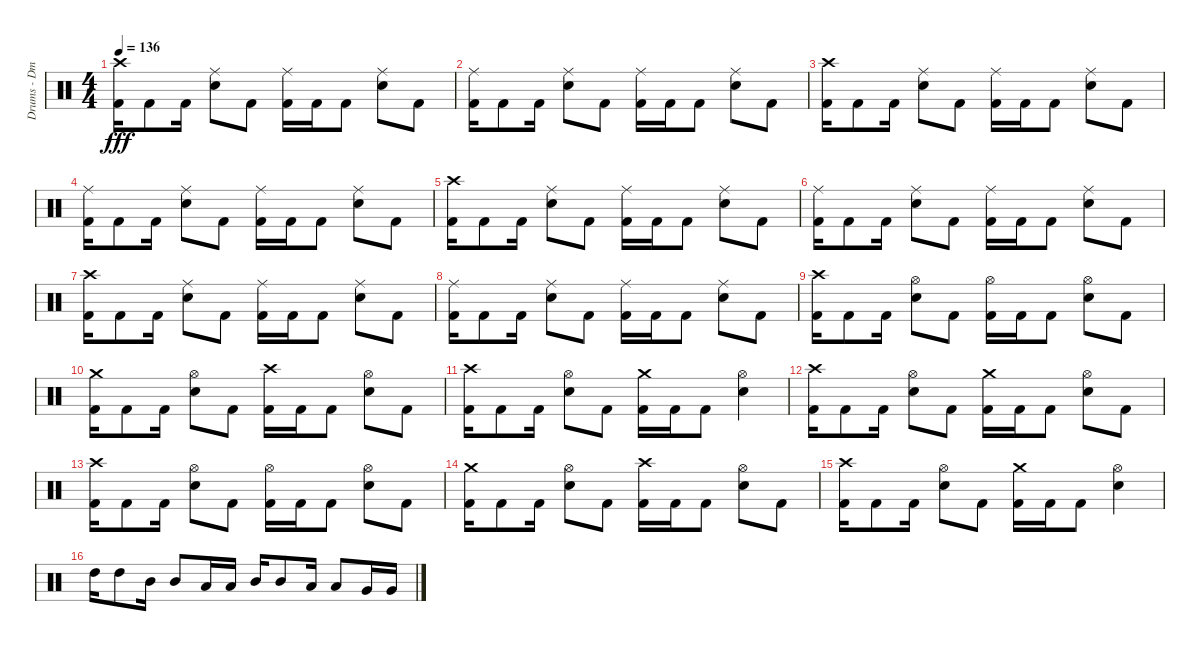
\track ("Drums - Dmitriy Krivenkov" "Drums - Dm") {instrument percussion}
\staff {score}
\articulation defaults
\ts (4 4)
\tempo 136
\clef neutral
\ks c
("Crash high (hit)" "Kick (hit) 2").16{dy fff} "Kick (hit) 2".8 "Kick (hit) 2".16 ("Ride (middle)" "Electric Snare (hit)").8 "Kick (hit) 2".8 ("Ride (middle)" "Kick (hit) 2").16 "Kick (hit) 2".16 "Kick (hit) 2".8 ("Ride (middle)" "Electric Snare (hit)").8 "Kick (hit) 2".8 |
("Ride (middle)" "Kick (hit) 2").16 "Kick (hit) 2".8 "Kick (hit) 2".16 ("Ride (middle)" "Electric Snare (hit)").8 "Kick (hit) 2".8 ("Ride (middle)" "Kick (hit) 2").16 "Kick (hit) 2".16 "Kick (hit) 2".8 ("Ride (middle)" "Electric Snare (hit)").8 "Kick (hit) 2".8 |
("Crash high (hit)" "Kick (hit) 2").16 "Kick (hit) 2".8 "Kick (hit) 2".16 ("Ride (middle)" "Electric Snare (hit)").8 "Kick (hit) 2".8 ("Ride (middle)" "Kick (hit) 2").16 "Kick (hit) 2".16 "Kick (hit) 2".8 ("Ride (middle)" "Electric Snare (hit)").8 "Kick (hit) 2".8 |
("Ride (middle)" "Kick (hit) 2").16 "Kick (hit) 2".8 "Kick (hit) 2".16 ("Ride (middle)" "Electric Snare (hit)").8 "Kick (hit) 2".8 ("Ride (middle)" "Kick (hit) 2").16 "Kick (hit) 2".16 "Kick (hit) 2".8 ("Ride (middle)" "Electric Snare (hit)").8 "Kick (hit) 2".8 |
("Crash high (hit)" "Kick (hit) 2").16 "Kick (hit) 2".8 "Kick (hit) 2".16 ("Ride (middle)" "Electric Snare (hit)").8 "Kick (hit) 2".8 ("Ride (middle)" "Kick (hit) 2").16 "Kick (hit) 2".16 "Kick (hit) 2".8 ("Ride (middle)" "Electric Snare (hit)").8 "Kick (hit) 2".8 |
("Ride (middle)" "Kick (hit) 2").16 "Kick (hit) 2".8 "Kick (hit) 2".16 ("Ride (middle)" "Electric Snare (hit)").8 "Kick (hit) 2".8 ("Ride (middle)" "Kick (hit) 2").16 "Kick (hit) 2".16 "Kick (hit) 2".8 ("Ride (middle)" "Electric Snare (hit)").8 "Kick (hit) 2".8 |
("Crash high (hit)" "Kick (hit) 2").16 "Kick (hit) 2".8 "Kick (hit) 2".16 ("Ride (middle)" "Electric Snare (hit)").8 "Kick (hit) 2".8 ("Ride (middle)" "Kick (hit) 2").16 "Kick (hit) 2".16 "Kick (hit) 2".8 ("Ride (middle)" "Electric Snare (hit)").8 "Kick (hit) 2".8 |
("Ride (middle)" "Kick (hit) 2").16 "Kick (hit) 2".8 "Kick (hit) 2".16 ("Ride (middle)" "Electric Snare (hit)").8 "Kick (hit) 2".8 ("Ride (middle)" "Kick (hit) 2").16 "Kick (hit) 2".16 "Kick (hit) 2".8 ("Ride (middle)" "Electric Snare (hit)").8 "Kick (hit) 2".8 |
("Crash high (hit)" "Kick (hit) 2").16 "Kick (hit) 2".8 "Kick (hit) 2".16 ("Hi-Hat (open)" "Electric Snare (hit)").8 "Kick (hit) 2".8 ("Hi-Hat (open)" "Kick (hit) 2").16 "Kick (hit) 2".16 "Kick (hit) 2".8 ("Hi-Hat (open)" "Electric Snare (hit)").8 "Kick (hit) 2".8 |
("Kick (hit) 2" "Crash medium (hit)").16 "Kick (hit) 2".8 "Kick (hit) 2".16 ("Hi-Hat (open)" "Electric Snare (hit)").8 "Kick (hit) 2".8 ("Kick (hit) 2" "Crash high (hit)").16 "Kick (hit) 2".16 "Kick (hit) 2".8 ("Hi-Hat (open)" "Electric Snare (hit)").8 "Kick (hit) 2".8 |
("Kick (hit) 2" "Crash high (hit)").16 "Kick (hit) 2".8 "Kick (hit) 2".16 ("Electric Snare (hit)" "Hi-Hat (open)").8 "Kick (hit) 2".8 ("Kick (hit) 2" "Crash medium (hit)").16 "Kick (hit) 2".16 "Kick (hit) 2".8 ("Electric Snare (hit)" "Hi-Hat (open)").4 |
("Crash high (hit)" "Kick (hit) 2").16 "Kick (hit) 2".8 "Kick (hit) 2".16 ("Hi-Hat (open)" "Electric Snare (hit)").8 "Kick (hit) 2".8 ("Crash medium (hit)" "Kick (hit) 2").16 "Kick (hit) 2".16 "Kick (hit) 2".8 ("Hi-Hat (open)" "Electric Snare (hit)").8 "Kick (hit) 2".8 |
("Crash high (hit)" "Kick (hit) 2").16 "Kick (hit) 2".8 "Kick (hit) 2".16 ("Hi-Hat (open)" "Electric Snare (hit)").8 "Kick (hit) 2".8 ("Hi-Hat (open)" "Kick (hit) 2").16 "Kick (hit) 2".16 "Kick (hit) 2".8 ("Hi-Hat (open)" "Electric Snare (hit)").8 "Kick (hit) 2".8 |
("Kick (hit) 2" "Crash medium (hit)").16 "Kick (hit) 2".8 "Kick (hit) 2".16 ("Hi-Hat (open)" "Electric Snare (hit)").8 "Kick (hit) 2".8 ("Kick (hit) 2" "Crash high (hit)").16 "Kick (hit) 2".16 "Kick (hit) 2".8 ("Hi-Hat (open)" "Electric Snare (hit)").8 "Kick (hit) 2".8 |
("Kick (hit) 2" "Crash high (hit)").16 "Kick (hit) 2".8 "Kick (hit) 2".16 ("Electric Snare (hit)" "Hi-Hat (open)").8 "Kick (hit) 2".8 ("Kick (hit) 2" "Crash medium (hit)").16 "Kick (hit) 2".16 "Kick (hit) 2".8 ("Electric Snare (hit)" "Hi-Hat (open)").4 |
"High Tom (hit)".16 "High Tom (hit)".8 "Mid Tom (hit)".16 "Mid Tom (hit)".8 "Low Tom (hit)".16 "Low Tom (hit)".16 "Mid Tom (hit)".16 "Mid Tom (hit)".8 "Low Tom (hit)".16 "Low Tom (hit)".8 "Very Low Tom (hit)".16 "Very Low Tom (hit)".16
